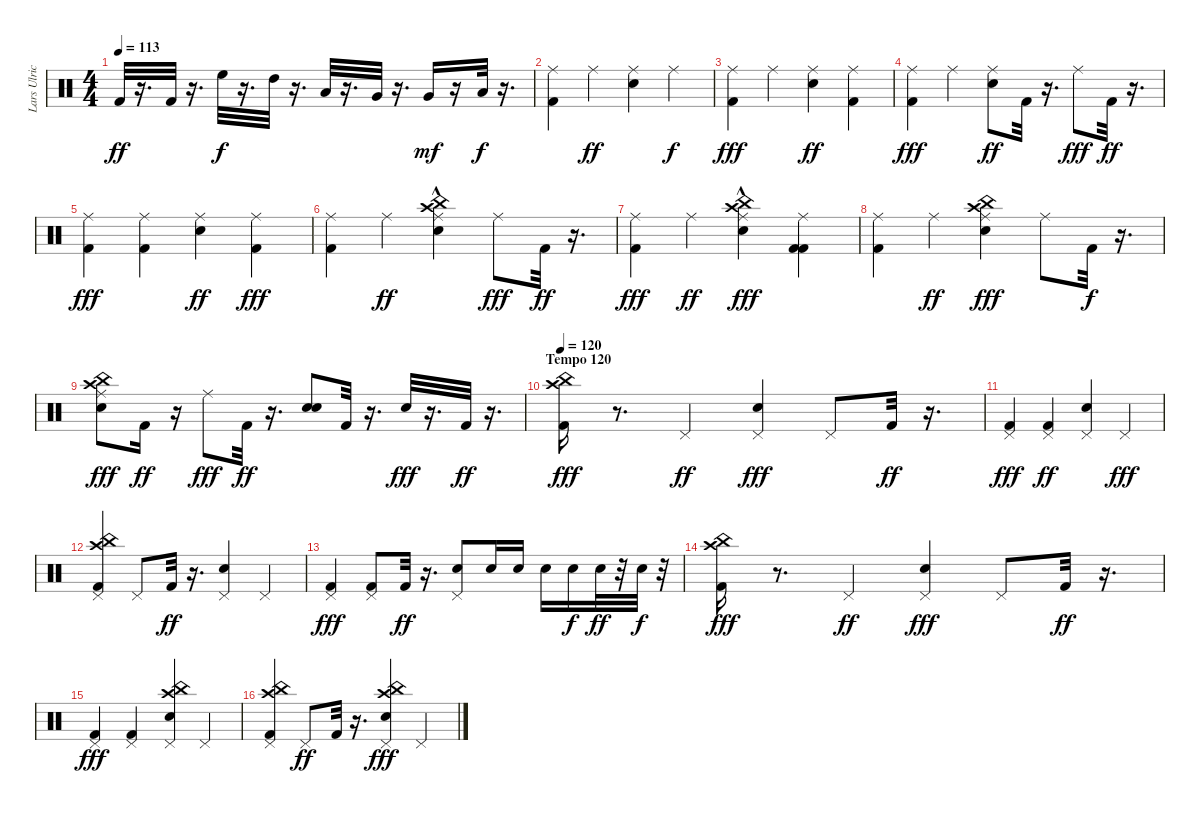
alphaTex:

\track ("Lars Ulrich" "Lars Ulric") {instrument percussion}
\staff {score}
\articulation defaults
\ts (4 4)
\tempo 113
\clef neutral
\ks c "Kick (hit) 2".32{dy ff}
r.16{d} "Kick (hit) 2".32 r.16{d} "High Floor Tom (hit)".32{dy f} r.16{d} "High Tom (hit)".32 r.16{d} "Low Tom (hit)".32 r.16{d} "Very Low Tom (hit)".32 r.16{d} "Very Low Tom (hit)".16{dy mf} r.16 "Low Floor Tom (hit)".32{dy f} r.16{d} |
("Kick (hit) 2" "Ride (middle)").4 "Ride (middle)".4{dy ff} ("Snare (hit) 2" "Ride (middle)").4 "Ride (middle)".4{dy f} |
("Kick (hit) 2" "Ride (middle)").4{dy fff} "Ride (middle)".4 ("Snare (hit) 2" "Ride (middle)").4{dy ff} ("Kick (hit) 2" "Ride (middle)").4 |
("Kick (hit) 2" "Ride (middle)").4{dy fff} "Ride (middle)".4 ("Ride (middle)" "Snare (hit) 2").8{dy ff} "Kick (hit) 2".32 r.16{d} "Ride (middle)".8{dy fff} "Kick (hit) 2".32{dy ff} r.16{d} |
("Kick (hit) 2" "Ride (middle)").4{dy fff} ("Kick (hit) 2" "Ride (middle)").4 ("Snare (hit) 2" "Ride (middle)").4{dy ff} ("Kick (hit) 2" "Ride (middle)").4{dy fff} |
("Kick (hit) 2" "Ride (middle)").4 "Ride (middle)".4{dy ff} ("China (hit)"{hac} "Snare (hit) 2" "Ride (middle)" "Crash high (hit)").4 "Ride (middle)".8{dy fff} "Kick (hit) 2".32{dy ff} r.16{d} |
("Kick (hit) 2" "Ride (middle)").4{dy fff} "Ride (middle)".4{dy ff} ("Crash high (hit)"{hac} "China (hit)" "Snare (hit) 2" "Ride (middle)").4{dy fff} ("Kick (hit) 2" "Kick (hit) 2" "Ride (middle)").4 |
("Kick (hit) 2" "Ride (middle)").4 "Ride (middle)".4{dy ff} ("China (hit)" "Crash high (hit)" "Snare (hit) 2" "Ride (middle)").4{dy fff} "Ride (middle)".8 "Kick (hit) 2".32{dy f} r.16{d} |
("Snare (hit) 2" "Crash high (hit)" "China (hit)" "Ride (middle)").8{dy fff} "Kick (hit) 2".16{dy ff} r.16 "Ride (middle)".8{dy fff} "Kick (hit) 2".32{dy ff} r.16{d} ("Snare (hit) 2" "Snare (hit) 2").8 "Kick (hit) 2".32 r.16{d} "Snare (hit) 2".32{dy fff} r.16{d} "Kick (hit) 2".32{dy ff} r.16{d} |
\section ("" "Tempo 120")
\tempo 120
("China (hit)" "Crash high (hit)" "Kick (hit) 2").16{dy fff} r.8{d} "Pedal Hi-Hat (hit)".4{dy ff} ("Snare (hit) 2" "Pedal Hi-Hat (hit)").4{dy fff} "Pedal Hi-Hat (hit)".8 "Kick (hit) 2".32{dy ff} r.16{d} |
("Kick (hit) 2" "Pedal Hi-Hat (hit)").4{dy fff} ("Kick (hit) 2" "Pedal Hi-Hat (hit)").4{dy ff} ("Snare (hit) 2" "Pedal Hi-Hat (hit)").4 "Pedal Hi-Hat (hit)".4{dy fff} |
("Crash high (hit)" "China (hit)" "Kick (hit) 2" "Pedal Hi-Hat (hit)").4 "Pedal Hi-Hat (hit)".8 "Kick (hit) 2".32{dy ff} r.16{d} ("Pedal Hi-Hat (hit)" "Snare (hit) 2").4 "Pedal Hi-Hat (hit)".4 |
("Kick (hit) 2" "Pedal Hi-Hat (hit)").4{dy fff} ("Kick (hit) 2" "Pedal Hi-Hat (hit)").8 "Kick (hit) 2".32{dy ff} r.16{d} ("Snare (hit) 2" "Pedal Hi-Hat (hit)").8 "Snare (hit) 2".16 "Snare (hit) 2".16 "Snare (hit) 2".16 "Snare (hit) 2".16{dy f} "Snare (hit) 2".32{dy ff} r.32 "Snare (hit) 2".32{dy f} r.32 |
("China (hit)" "Crash high (hit)" "Kick (hit) 2").16{dy fff} r.8{d} "Pedal Hi-Hat (hit)".4{dy ff} ("Snare (hit) 2" "Pedal Hi-Hat (hit)").4{dy fff} "Pedal Hi-Hat (hit)".8 "Kick (hit) 2".32{dy ff} r.16{d} |
("Kick (hit) 2" "Pedal Hi-Hat (hit)").4{dy fff} ("Kick (hit) 2" "Pedal Hi-Hat (hit)").4 ("China (hit)" "Crash high (hit)" "Snare (hit) 2" "Pedal Hi-Hat (hit)").4 "Pedal Hi-Hat (hit)".4 |
("Crash high (hit)" "China (hit)" "Kick (hit) 2" "Pedal Hi-Hat (hit)").4 "Pedal Hi-Hat (hit)".8{dy ff} "Kick (hit) 2".32 r.16{d} ("China (hit)" "Crash high (hit)" "Snare (hit) 2" "Pedal Hi-Hat (hit)").4{dy fff} "Pedal Hi-Hat (hit)".4
